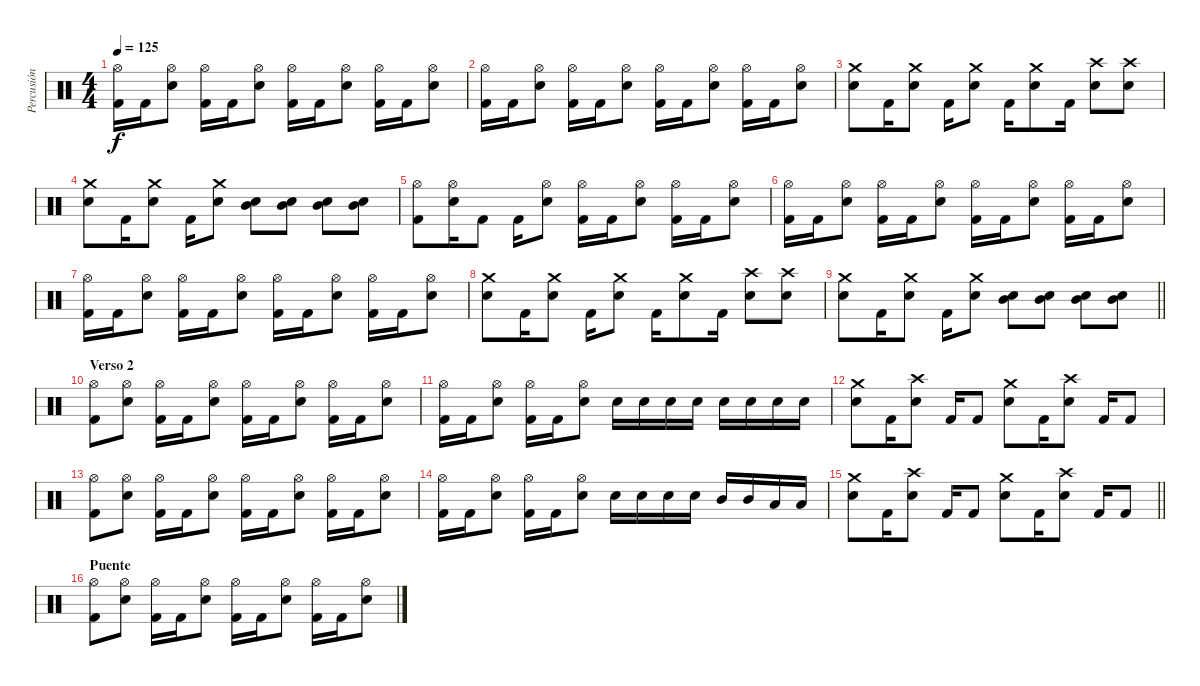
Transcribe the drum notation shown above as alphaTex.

\track ("Percusión" "Percusión") {instrument percussion}
\staff {score}
\articulation defaults
\ts (4 4)
\tempo 125
\clef neutral
\ks c
("Hi-Hat (open)" "Kick (hit) 2").16{dy f} "Kick (hit) 2".16 ("Hi-Hat (open)" "Snare (hit) 2").8 ("Hi-Hat (open)" "Kick (hit) 2").16 "Kick (hit) 2".16 ("Hi-Hat (open)" "Snare (hit) 2").8 ("Hi-Hat (open)" "Kick (hit) 2").16 "Kick (hit) 2".16 ("Hi-Hat (open)" "Snare (hit) 2").8 ("Hi-Hat (open)" "Kick (hit) 2").16 "Kick (hit) 2".16 ("Hi-Hat (open)" "Snare (hit) 2").8 |
("Hi-Hat (open)" "Kick (hit) 2").16 "Kick (hit) 2".16 ("Hi-Hat (open)" "Snare (hit) 2").8 ("Hi-Hat (open)" "Kick (hit) 2").16 "Kick (hit) 2".16 ("Hi-Hat (open)" "Snare (hit) 2").8 ("Hi-Hat (open)" "Kick (hit) 2").16 "Kick (hit) 2".16 ("Hi-Hat (open)" "Snare (hit) 2").8 ("Hi-Hat (open)" "Kick (hit) 2").16 "Kick (hit) 2".16 ("Hi-Hat (open)" "Snare (hit) 2").8 |
("Crash medium (hit)" "Snare (hit) 2").8 "Kick (hit) 2".16 ("Crash medium (hit)" "Snare (hit) 2").8 "Kick (hit) 2".16 ("Crash medium (hit)" "Snare (hit) 2").8 "Kick (hit) 2".16 ("Crash medium (hit)" "Snare (hit) 2").8 "Kick (hit) 2".16 ("Crash high (hit)" "Snare (hit) 2").8 ("Crash high (hit)" "Snare (hit) 2").8 |
("Crash medium (hit)" "Snare (hit) 2").8 "Kick (hit) 2".16 ("Crash medium (hit)" "Snare (hit) 2").8 "Kick (hit) 2".16 ("Crash medium (hit)" "Snare (hit) 2").8 ("Mid Tom (hit)" "Snare (hit) 2").8 ("Mid Tom (hit)" "Snare (hit) 2").8 ("Mid Tom (hit)" "Snare (hit) 2").8 ("Mid Tom (hit)" "Snare (hit) 2").8 |
("Hi-Hat (open)" "Kick (hit) 2").8 ("Hi-Hat (open)" "Snare (hit) 2").16 "Kick (hit) 2".8 "Kick (hit) 2".16 ("Hi-Hat (open)" "Snare (hit) 2").8 ("Hi-Hat (open)" "Kick (hit) 2").16 "Kick (hit) 2".16 ("Hi-Hat (open)" "Snare (hit) 2").8 ("Hi-Hat (open)" "Kick (hit) 2").16 "Kick (hit) 2".16 ("Hi-Hat (open)" "Snare (hit) 2").8 |
("Hi-Hat (open)" "Kick (hit) 2").16 "Kick (hit) 2".16 ("Hi-Hat (open)" "Snare (hit) 2").8 ("Hi-Hat (open)" "Kick (hit) 2").16 "Kick (hit) 2".16 ("Hi-Hat (open)" "Snare (hit) 2").8 ("Hi-Hat (open)" "Kick (hit) 2").16 "Kick (hit) 2".16 ("Hi-Hat (open)" "Snare (hit) 2").8 ("Hi-Hat (open)" "Kick (hit) 2").16 "Kick (hit) 2".16 ("Hi-Hat (open)" "Snare (hit) 2").8 |
("Hi-Hat (open)" "Kick (hit) 2").16 "Kick (hit) 2".16 ("Hi-Hat (open)" "Snare (hit) 2").8 ("Hi-Hat (open)" "Kick (hit) 2").16 "Kick (hit) 2".16 ("Hi-Hat (open)" "Snare (hit) 2").8 ("Hi-Hat (open)" "Kick (hit) 2").16 "Kick (hit) 2".16 ("Hi-Hat (open)" "Snare (hit) 2").8 ("Hi-Hat (open)" "Kick (hit) 2").16 "Kick (hit) 2".16 ("Hi-Hat (open)" "Snare (hit) 2").8 |
("Crash medium (hit)" "Snare (hit) 2").8 "Kick (hit) 2".16 ("Crash medium (hit)" "Snare (hit) 2").8 "Kick (hit) 2".16 ("Crash medium (hit)" "Snare (hit) 2").8 "Kick (hit) 2".16 ("Crash medium (hit)" "Snare (hit) 2").8 "Kick (hit) 2".16 ("Crash high (hit)" "Snare (hit) 2").8 ("Crash high (hit)" "Snare (hit) 2").8 |
\barLineRight lightlight
("Crash medium (hit)" "Snare (hit) 2").8 "Kick (hit) 2".16 ("Crash medium (hit)" "Snare (hit) 2").8 "Kick (hit) 2".16 ("Crash medium (hit)" "Snare (hit) 2").8 ("Mid Tom (hit)" "Snare (hit) 2").8 ("Mid Tom (hit)" "Snare (hit) 2").8 ("Mid Tom (hit)" "Snare (hit) 2").8 ("Mid Tom (hit)" "Snare (hit) 2").8 |
\section ("" "Verso 2")
("Hi-Hat (open)" "Kick (hit) 2").8 ("Hi-Hat (open)" "Snare (hit) 2").8 ("Hi-Hat (open)" "Kick (hit) 2").16 "Kick (hit) 2".16 ("Hi-Hat (open)" "Snare (hit) 2").8 ("Hi-Hat (open)" "Kick (hit) 2").16 "Kick (hit) 2".16 ("Hi-Hat (open)" "Snare (hit) 2").8 ("Hi-Hat (open)" "Kick (hit) 2").16 "Kick (hit) 2".16 ("Hi-Hat (open)" "Snare (hit) 2").8 |
("Hi-Hat (open)" "Kick (hit) 2").16 "Kick (hit) 2".16 ("Hi-Hat (open)" "Snare (hit) 2").8 ("Hi-Hat (open)" "Kick (hit) 2").16 "Kick (hit) 2".16 ("Hi-Hat (open)" "Snare (hit) 2").8 "Snare (hit) 2".16 "Snare (hit) 2".16 "Snare (hit) 2".16 "Snare (hit) 2".16 "Snare (hit) 2".16 "Snare (hit) 2".16 "Snare (hit) 2".16 "Snare (hit) 2".16 |
("Crash medium (hit)" "Snare (hit) 2").8 "Kick (hit) 2".16 ("Crash high (hit)" "Snare (hit) 2").8 "Kick (hit) 2".16 "Kick (hit) 2".8 ("Crash medium (hit)" "Snare (hit) 2").8 "Kick (hit) 2".16 ("Crash high (hit)" "Snare (hit) 2").8 "Kick (hit) 2".16 "Kick (hit) 2".8 |
("Hi-Hat (open)" "Kick (hit) 2").8 ("Hi-Hat (open)" "Snare (hit) 2").8 ("Hi-Hat (open)" "Kick (hit) 2").16 "Kick (hit) 2".16 ("Hi-Hat (open)" "Snare (hit) 2").8 ("Hi-Hat (open)" "Kick (hit) 2").16 "Kick (hit) 2".16 ("Hi-Hat (open)" "Snare (hit) 2").8 ("Hi-Hat (open)" "Kick (hit) 2").16 "Kick (hit) 2".16 ("Hi-Hat (open)" "Snare (hit) 2").8 |
("Hi-Hat (open)" "Kick (hit) 2").16 "Kick (hit) 2".16 ("Hi-Hat (open)" "Snare (hit) 2").8 ("Hi-Hat (open)" "Kick (hit) 2").16 "Kick (hit) 2".16 ("Hi-Hat (open)" "Snare (hit) 2").8 "Snare (hit) 2".16 "Snare (hit) 2".16 "Snare (hit) 2".16 "Snare (hit) 2".16 "Mid Tom (hit)".16 "Mid Tom (hit)".16 "Low Tom (hit)".16 "Low Tom (hit)".16 |
\barLineRight lightlight
("Crash medium (hit)" "Snare (hit) 2").8 "Kick (hit) 2".16 ("Crash high (hit)" "Snare (hit) 2").8 "Kick (hit) 2".16 "Kick (hit) 2".8 ("Crash medium (hit)" "Snare (hit) 2").8 "Kick (hit) 2".16 ("Crash high (hit)" "Snare (hit) 2").8 "Kick (hit) 2".16 "Kick (hit) 2".8 |
\section ("" "Puente")
("Hi-Hat (open)" "Kick (hit) 2").8 ("Hi-Hat (open)" "Snare (hit) 2").8 ("Hi-Hat (open)" "Kick (hit) 2").16 "Kick (hit) 2".16 ("Hi-Hat (open)" "Snare (hit) 2").8 ("Hi-Hat (open)" "Kick (hit) 2").16 "Kick (hit) 2".16 ("Hi-Hat (open)" "Snare (hit) 2").8 ("Hi-Hat (open)" "Kick (hit) 2").16 "Kick (hit) 2".16 ("Hi-Hat (open)" "Snare (hit) 2").8
